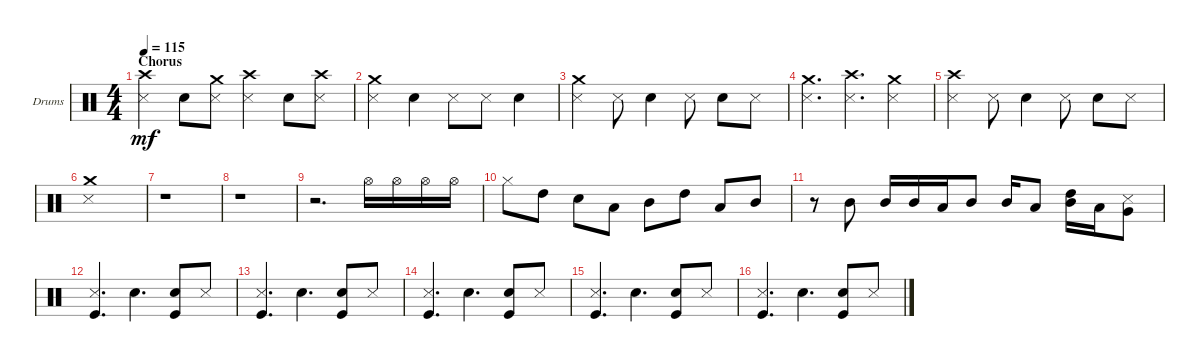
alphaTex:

\defaultSystemsLayout 4
\bracketExtendMode groupsimilarinstruments
\firstSystemTrackNameOrientation horizontal
\otherSystemsTrackNameOrientation horizontal
\track ("Drumkit" "Drums") {instrument percussion}
\staff {score}
\articulation defaults
\ts (4 4)
\section ("" "Chorus")
\tempo 115
\clef neutral
\ks c
("Crash high (hit)" "Snare (side stick) 3").4{dy mf} "Snare (hit) 2".8 ("Crash medium (hit)" "Snare (side stick) 3").8 ("Crash high (hit)" "Snare (side stick) 3").4 "Snare (hit) 2".8 ("Crash high (hit)" "Snare (side stick) 3").8 |
("Crash medium (hit)" "Snare (side stick) 3").4 "Snare (hit) 2".4 "Snare (side stick) 3".8 "Snare (side stick) 3".8 "Snare (hit) 2".4 |
("Crash medium (hit)" "Snare (side stick) 3").4 "Snare (side stick) 3".8 "Snare (hit) 2".4 "Snare (side stick) 3".8 "Snare (hit) 2".8 "Snare (side stick) 3".8 |
("Crash medium (hit)" "Snare (side stick) 3").4{d} ("Crash high (hit)" "Snare (side stick) 3").4{d} ("Crash medium (hit)" "Snare (side stick) 3").4 |
("Crash high (hit)" "Snare (side stick) 3").4 "Snare (side stick) 3".8 "Snare (hit) 2".4 "Snare (side stick) 3".8 "Snare (hit) 2".8 "Snare (side stick) 3".8 |
("Snare (side stick) 3" "Crash medium (hit)").1 |
r.1 |
r.1 |
r.2{d} "Hi-Hat (open)".16 "Hi-Hat (open)".16 "Hi-Hat (open)".16 "Hi-Hat (open)".16 |
"Hi-Hat (closed)".8 "High Tom (hit)".8 "Snare (hit) 2".8 "Low Tom (hit)".8 "Mid Tom (hit)".8 "High Tom (hit)".8 "Low Tom (hit)".8 "Mid Tom (hit)".8 |
r.8 "Mid Tom (hit)".8 "Mid Tom (hit)".16 "Mid Tom (hit)".16 "Low Tom (hit)".16 "Mid Tom (hit)".8 "Mid Tom (hit)".16 "Low Tom (hit)".8 ("High Tom (hit)" "Mid Tom (hit)").16 "Low Tom (hit)".16 ("Very Low Tom (hit)" "Snare (side stick) 3").8 |
("Snare (side stick) 3" "Kick (hit)").4{d} "Snare (hit) 2".4{d} ("Snare (hit) 2" "Kick (hit)").8 "Snare (side stick) 3".8 |
("Snare (side stick) 3" "Kick (hit)").4{d} "Snare (hit) 2".4{d} ("Snare (hit) 2" "Kick (hit)").8 "Snare (side stick) 3".8 |
("Snare (side stick) 3" "Kick (hit)").4{d} "Snare (hit) 2".4{d} ("Snare (hit) 2" "Kick (hit)").8 "Snare (side stick) 3".8 |
("Snare (side stick) 3" "Kick (hit)").4{d} "Snare (hit) 2".4{d} ("Snare (hit) 2" "Kick (hit)").8 "Snare (side stick) 3".8 |
("Snare (side stick) 3" "Kick (hit)").4{d} "Snare (hit) 2".4{d} ("Snare (hit) 2" "Kick (hit)").8 "Snare (side stick) 3".8
